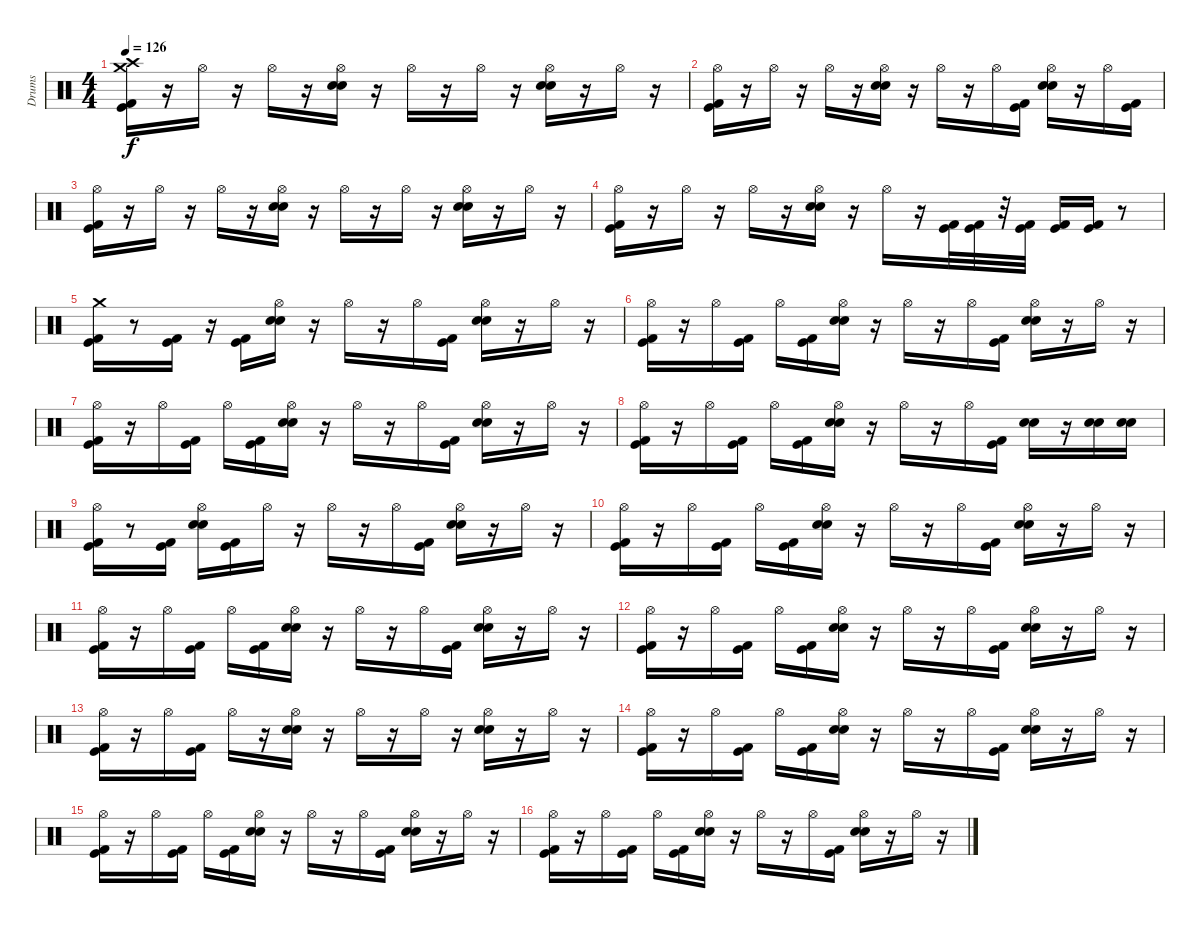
\track ("Drums" "Drums") {instrument percussion}
\staff {score}
\articulation defaults
\ts (4 4)
\tempo 126
\clef neutral
\ks c
("Crash high (hit)" "Crash medium (hit)" "Kick (hit) 2" "Kick (hit)").16{dy f} r.16 "Hi-Hat (open)".16 r.16 "Hi-Hat (open)".16 r.16 ("Hi-Hat (open)" "Electric Snare (hit)" "Snare (hit) 2").16 r.16 "Hi-Hat (open)".16 r.16 "Hi-Hat (open)".16 r.16 ("Hi-Hat (open)" "Electric Snare (hit)" "Snare (hit) 2").16 r.16 "Hi-Hat (open)".16 r.16 |
("Hi-Hat (open)" "Kick (hit) 2" "Kick (hit)").16 r.16 "Hi-Hat (open)".16 r.16 "Hi-Hat (open)".16 r.16 ("Electric Snare (hit)" "Snare (hit) 2" "Hi-Hat (open)").16 r.16 "Hi-Hat (open)".16 r.16 "Hi-Hat (open)".16 ("Kick (hit) 2" "Kick (hit)").16 ("Electric Snare (hit)" "Snare (hit) 2" "Hi-Hat (open)").16 r.16 "Hi-Hat (open)".16 ("Kick (hit) 2" "Kick (hit)").16 |
("Hi-Hat (open)" "Kick (hit) 2" "Kick (hit)").16 r.16 "Hi-Hat (open)".16 r.16 "Hi-Hat (open)".16 r.16 ("Electric Snare (hit)" "Snare (hit) 2" "Hi-Hat (open)").16 r.16 "Hi-Hat (open)".16 r.16 "Hi-Hat (open)".16 r.16 ("Electric Snare (hit)" "Snare (hit) 2" "Hi-Hat (open)").16 r.16 "Hi-Hat (open)".16 r.16 |
("Hi-Hat (open)" "Kick (hit) 2" "Kick (hit)").16 r.16 "Hi-Hat (open)".16 r.16 "Hi-Hat (open)".16 r.16 ("Electric Snare (hit)" "Snare (hit) 2" "Hi-Hat (open)").16 r.16 "Hi-Hat (open)".16 r.16 ("Kick (hit) 2" "Kick (hit)").32 ("Kick (hit) 2" "Kick (hit)").32 r.32 ("Kick (hit) 2" "Kick (hit)").32 ("Kick (hit) 2" "Kick (hit)").16 ("Kick (hit) 2" "Kick (hit)").16 r.8 |
("Crash medium (hit)" "Kick (hit) 2" "Kick (hit)").16 r.8 ("Kick (hit) 2" "Kick (hit)").16 r.16 ("Kick (hit) 2" "Kick (hit)").16 ("Hi-Hat (open)" "Electric Snare (hit)" "Snare (hit) 2").16 r.16 "Hi-Hat (open)".16 r.16 "Hi-Hat (open)".16 ("Kick (hit) 2" "Kick (hit)").16 ("Electric Snare (hit)" "Snare (hit) 2" "Hi-Hat (open)").16 r.16 "Hi-Hat (open)".16 r.16 |
("Hi-Hat (open)" "Kick (hit) 2" "Kick (hit)").16 r.16 "Hi-Hat (open)".16 ("Kick (hit) 2" "Kick (hit)").16 "Hi-Hat (open)".16 ("Kick (hit) 2" "Kick (hit)").16 ("Hi-Hat (open)" "Electric Snare (hit)" "Snare (hit) 2").16 r.16 "Hi-Hat (open)".16 r.16 "Hi-Hat (open)".16 ("Kick (hit) 2" "Kick (hit)").16 ("Electric Snare (hit)" "Snare (hit) 2" "Hi-Hat (open)").16 r.16 "Hi-Hat (open)".16 r.16 |
("Hi-Hat (open)" "Kick (hit) 2" "Kick (hit)").16 r.16 "Hi-Hat (open)".16 ("Kick (hit) 2" "Kick (hit)").16 "Hi-Hat (open)".16 ("Kick (hit) 2" "Kick (hit)").16 ("Hi-Hat (open)" "Electric Snare (hit)" "Snare (hit) 2").16 r.16 "Hi-Hat (open)".16 r.16 "Hi-Hat (open)".16 ("Kick (hit) 2" "Kick (hit)").16 ("Electric Snare (hit)" "Snare (hit) 2" "Hi-Hat (open)").16 r.16 "Hi-Hat (open)".16 r.16 |
("Kick (hit) 2" "Kick (hit)" "Hi-Hat (open)").16 r.16 "Hi-Hat (open)".16 ("Kick (hit) 2" "Kick (hit)").16 "Hi-Hat (open)".16 ("Kick (hit) 2" "Kick (hit)").16 ("Electric Snare (hit)" "Snare (hit) 2" "Hi-Hat (open)").16 r.16 "Hi-Hat (open)".16 r.16 "Hi-Hat (open)".16 ("Kick (hit)" "Kick (hit) 2").16 ("Electric Snare (hit)" "Snare (hit) 2").16 r.16 ("Electric Snare (hit)" "Snare (hit) 2").16 ("Electric Snare (hit)" "Snare (hit) 2").16 |
("Kick (hit) 2" "Kick (hit)" "Hi-Hat (open)").16 r.8 ("Kick (hit) 2" "Kick (hit)").16 ("Electric Snare (hit)" "Snare (hit) 2" "Hi-Hat (open)").16 ("Kick (hit) 2" "Kick (hit)").16 "Hi-Hat (open)".16 r.16 "Hi-Hat (open)".16 r.16 "Hi-Hat (open)".16 ("Kick (hit) 2" "Kick (hit)").16 ("Snare (hit) 2" "Electric Snare (hit)" "Hi-Hat (open)").16 r.16 "Hi-Hat (open)".16 r.16 |
("Hi-Hat (open)" "Kick (hit) 2" "Kick (hit)").16 r.16 "Hi-Hat (open)".16 ("Kick (hit) 2" "Kick (hit)").16 "Hi-Hat (open)".16 ("Kick (hit) 2" "Kick (hit)").16 ("Hi-Hat (open)" "Electric Snare (hit)" "Snare (hit) 2").16 r.16 "Hi-Hat (open)".16 r.16 "Hi-Hat (open)".16 ("Kick (hit) 2" "Kick (hit)").16 ("Electric Snare (hit)" "Snare (hit) 2" "Hi-Hat (open)").16 r.16 "Hi-Hat (open)".16 r.16 |
("Hi-Hat (open)" "Kick (hit) 2" "Kick (hit)").16 r.16 "Hi-Hat (open)".16 ("Kick (hit) 2" "Kick (hit)").16 "Hi-Hat (open)".16 ("Kick (hit) 2" "Kick (hit)").16 ("Hi-Hat (open)" "Electric Snare (hit)" "Snare (hit) 2").16 r.16 "Hi-Hat (open)".16 r.16 "Hi-Hat (open)".16 ("Kick (hit) 2" "Kick (hit)").16 ("Electric Snare (hit)" "Snare (hit) 2" "Hi-Hat (open)").16 r.16 "Hi-Hat (open)".16 r.16 |
("Hi-Hat (open)" "Kick (hit) 2" "Kick (hit)").16 r.16 "Hi-Hat (open)".16 ("Kick (hit) 2" "Kick (hit)").16 "Hi-Hat (open)".16 ("Kick (hit) 2" "Kick (hit)").16 ("Hi-Hat (open)" "Electric Snare (hit)" "Snare (hit) 2").16 r.16 "Hi-Hat (open)".16 r.16 "Hi-Hat (open)".16 ("Kick (hit) 2" "Kick (hit)").16 ("Electric Snare (hit)" "Snare (hit) 2" "Hi-Hat (open)").16 r.16 "Hi-Hat (open)".16 r.16 |
("Hi-Hat (open)" "Kick (hit) 2" "Kick (hit)").16 r.16 "Hi-Hat (open)".16 ("Kick (hit) 2" "Kick (hit)").16 "Hi-Hat (open)".16 r.16 ("Hi-Hat (open)" "Electric Snare (hit)" "Snare (hit) 2").16 r.16 "Hi-Hat (open)".16 r.16 "Hi-Hat (open)".16 r.16 ("Electric Snare (hit)" "Snare (hit) 2" "Hi-Hat (open)").16 r.16 "Hi-Hat (open)".16 r.16 |
("Hi-Hat (open)" "Kick (hit) 2" "Kick (hit)").16 r.16 "Hi-Hat (open)".16 ("Kick (hit) 2" "Kick (hit)").16 "Hi-Hat (open)".16 ("Kick (hit) 2" "Kick (hit)").16 ("Hi-Hat (open)" "Electric Snare (hit)" "Snare (hit) 2").16 r.16 "Hi-Hat (open)".16 r.16 "Hi-Hat (open)".16 ("Kick (hit) 2" "Kick (hit)").16 ("Electric Snare (hit)" "Snare (hit) 2" "Hi-Hat (open)").16 r.16 "Hi-Hat (open)".16 r.16 |
("Hi-Hat (open)" "Kick (hit) 2" "Kick (hit)").16 r.16 "Hi-Hat (open)".16 ("Kick (hit) 2" "Kick (hit)").16 "Hi-Hat (open)".16 ("Kick (hit) 2" "Kick (hit)").16 ("Hi-Hat (open)" "Electric Snare (hit)" "Snare (hit) 2").16 r.16 "Hi-Hat (open)".16 r.16 "Hi-Hat (open)".16 ("Kick (hit) 2" "Kick (hit)").16 ("Electric Snare (hit)" "Snare (hit) 2" "Hi-Hat (open)").16 r.16 "Hi-Hat (open)".16 r.16 |
("Hi-Hat (open)" "Kick (hit) 2" "Kick (hit)").16 r.16 "Hi-Hat (open)".16 ("Kick (hit) 2" "Kick (hit)").16 "Hi-Hat (open)".16 ("Kick (hit) 2" "Kick (hit)").16 ("Hi-Hat (open)" "Electric Snare (hit)" "Snare (hit) 2").16 r.16 "Hi-Hat (open)".16 r.16 "Hi-Hat (open)".16 ("Kick (hit) 2" "Kick (hit)").16 ("Electric Snare (hit)" "Snare (hit) 2" "Hi-Hat (open)").16 r.16 "Hi-Hat (open)".16 r.16
